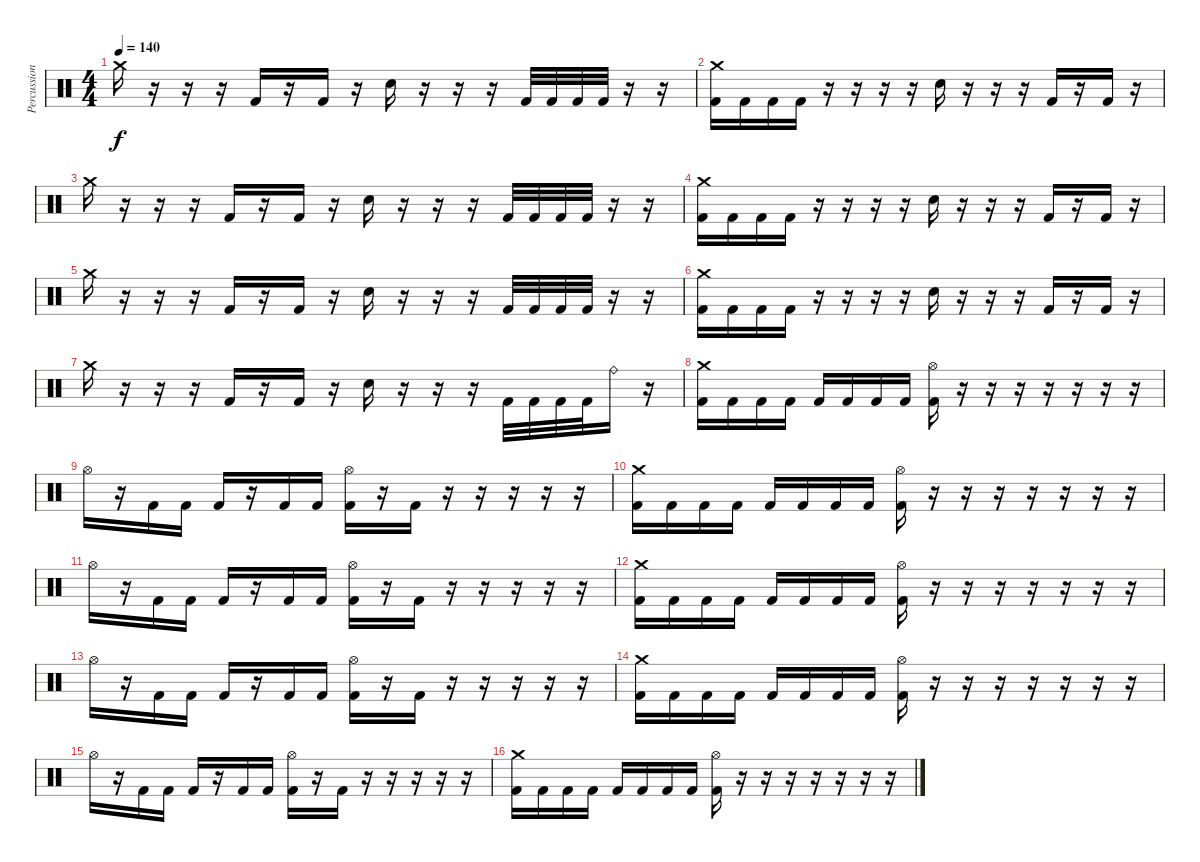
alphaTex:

\track ("Percussion" "Percussion") {instrument percussion}
\staff {score}
\articulation defaults
\ts (4 4)
\tempo 140
\clef neutral
\ks c "Crash medium (hit)".16{dy f}
r.16 r.16 r.16 "Kick (hit) 2".16 r.16 "Kick (hit) 2".16 r.16 "Snare (hit) 2".16 r.16 r.16 r.16 "Kick (hit) 2".32 "Kick (hit) 2".32 "Kick (hit) 2".32 "Kick (hit) 2".32 r.16 r.16 |
("Crash medium (hit)" "Kick (hit) 2").16 "Kick (hit) 2".16 "Kick (hit) 2".16 "Kick (hit) 2".16 r.16 r.16 r.16 r.16 "Snare (hit) 2".16 r.16 r.16 r.16 "Kick (hit) 2".16 r.16 "Kick (hit) 2".16 r.16 |
"Crash medium (hit)".16 r.16 r.16 r.16 "Kick (hit) 2".16 r.16 "Kick (hit) 2".16 r.16 "Snare (hit) 2".16 r.16 r.16 r.16 "Kick (hit) 2".32 "Kick (hit) 2".32 "Kick (hit) 2".32 "Kick (hit) 2".32 r.16 r.16 |
("Crash medium (hit)" "Kick (hit) 2").16 "Kick (hit) 2".16 "Kick (hit) 2".16 "Kick (hit) 2".16 r.16 r.16 r.16 r.16 "Snare (hit) 2".16 r.16 r.16 r.16 "Kick (hit) 2".16 r.16 "Kick (hit) 2".16 r.16 |
"Crash medium (hit)".16 r.16 r.16 r.16 "Kick (hit) 2".16 r.16 "Kick (hit) 2".16 r.16 "Snare (hit) 2".16 r.16 r.16 r.16 "Kick (hit) 2".32 "Kick (hit) 2".32 "Kick (hit) 2".32 "Kick (hit) 2".32 r.16 r.16 |
("Crash medium (hit)" "Kick (hit) 2").16 "Kick (hit) 2".16 "Kick (hit) 2".16 "Kick (hit) 2".16 r.16 r.16 r.16 r.16 "Snare (hit) 2".16 r.16 r.16 r.16 "Kick (hit) 2".16 r.16 "Kick (hit) 2".16 r.16 |
"Crash medium (hit)".16 r.16 r.16 r.16 "Kick (hit) 2".16 r.16 "Kick (hit) 2".16 r.16 "Snare (hit) 2".16 r.16 r.16 r.16 "Kick (hit) 2".32 "Kick (hit) 2".32 "Kick (hit) 2".32 "Kick (hit) 2".32 "Ride (bell)".16 r.16 |
("Crash medium (hit)" "Kick (hit) 2").16 "Kick (hit) 2".16 "Kick (hit) 2".16 "Kick (hit) 2".16 "Kick (hit) 2".16 "Kick (hit) 2".16 "Kick (hit) 2".16 "Kick (hit) 2".16 ("Hi-Hat (open)" "Kick (hit) 2").16 r.16 r.16 r.16 r.16 r.16 r.16 r.16 |
"Hi-Hat (open)".16 r.16 "Kick (hit) 2".16 "Kick (hit) 2".16 "Kick (hit) 2".16 r.16 "Kick (hit) 2".16 "Kick (hit) 2".16 ("Hi-Hat (open)" "Kick (hit) 2").16 r.16 "Kick (hit) 2".16 r.16 r.16 r.16 r.16 r.16 |
("Crash medium (hit)" "Kick (hit) 2").16 "Kick (hit) 2".16 "Kick (hit) 2".16 "Kick (hit) 2".16 "Kick (hit) 2".16 "Kick (hit) 2".16 "Kick (hit) 2".16 "Kick (hit) 2".16 ("Hi-Hat (open)" "Kick (hit) 2").16 r.16 r.16 r.16 r.16 r.16 r.16 r.16 |
"Hi-Hat (open)".16 r.16 "Kick (hit) 2".16 "Kick (hit) 2".16 "Kick (hit) 2".16 r.16 "Kick (hit) 2".16 "Kick (hit) 2".16 ("Hi-Hat (open)" "Kick (hit) 2").16 r.16 "Kick (hit) 2".16 r.16 r.16 r.16 r.16 r.16 |
("Crash medium (hit)" "Kick (hit) 2").16 "Kick (hit) 2".16 "Kick (hit) 2".16 "Kick (hit) 2".16 "Kick (hit) 2".16 "Kick (hit) 2".16 "Kick (hit) 2".16 "Kick (hit) 2".16 ("Hi-Hat (open)" "Kick (hit) 2").16 r.16 r.16 r.16 r.16 r.16 r.16 r.16 |
"Hi-Hat (open)".16 r.16 "Kick (hit) 2".16 "Kick (hit) 2".16 "Kick (hit) 2".16 r.16 "Kick (hit) 2".16 "Kick (hit) 2".16 ("Hi-Hat (open)" "Kick (hit) 2").16 r.16 "Kick (hit) 2".16 r.16 r.16 r.16 r.16 r.16 |
("Crash medium (hit)" "Kick (hit) 2").16 "Kick (hit) 2".16 "Kick (hit) 2".16 "Kick (hit) 2".16 "Kick (hit) 2".16 "Kick (hit) 2".16 "Kick (hit) 2".16 "Kick (hit) 2".16 ("Hi-Hat (open)" "Kick (hit) 2").16 r.16 r.16 r.16 r.16 r.16 r.16 r.16 |
"Hi-Hat (open)".16 r.16 "Kick (hit) 2".16 "Kick (hit) 2".16 "Kick (hit) 2".16 r.16 "Kick (hit) 2".16 "Kick (hit) 2".16 ("Hi-Hat (open)" "Kick (hit) 2").16 r.16 "Kick (hit) 2".16 r.16 r.16 r.16 r.16 r.16 |
("Crash medium (hit)" "Kick (hit) 2").16 "Kick (hit) 2".16 "Kick (hit) 2".16 "Kick (hit) 2".16 "Kick (hit) 2".16 "Kick (hit) 2".16 "Kick (hit) 2".16 "Kick (hit) 2".16 ("Hi-Hat (open)" "Kick (hit) 2").16 r.16 r.16 r.16 r.16 r.16 r.16 r.16
